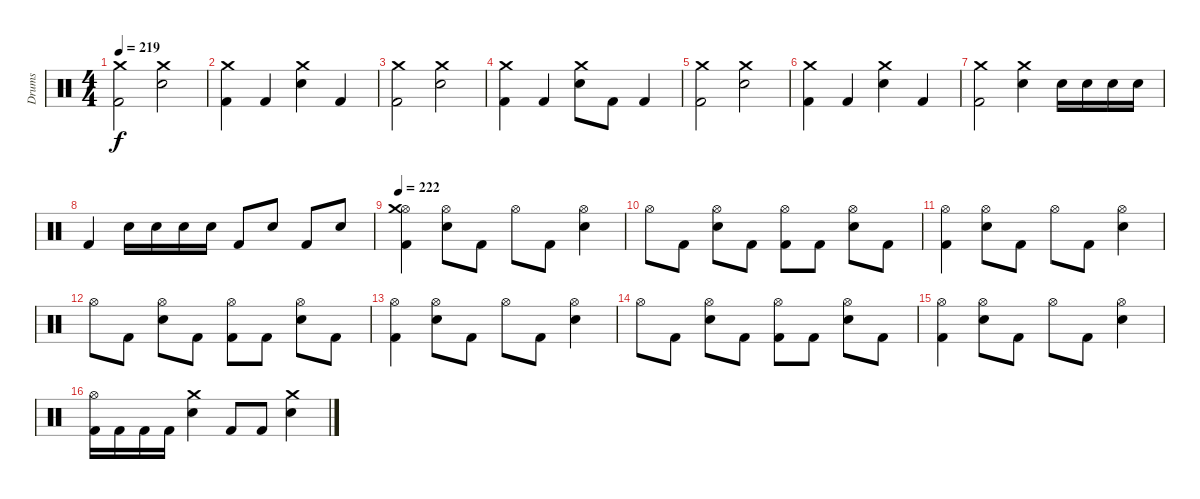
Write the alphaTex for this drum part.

\track ("Drums" "Drums") {instrument percussion}
\staff {score}
\articulation defaults
\ts (4 4)
\tempo 219
\clef neutral
\ks c
("Kick (hit) 2" "Crash medium (hit)").2{dy f} ("Snare (hit) 2" "Crash medium (hit)").2 |
("Kick (hit) 2" "Crash medium (hit)").4 "Kick (hit) 2".4 ("Snare (hit) 2" "Crash medium (hit)").4 "Kick (hit) 2".4 |
("Kick (hit) 2" "Crash medium (hit)").2 ("Snare (hit) 2" "Crash medium (hit)").2 |
("Kick (hit) 2" "Crash medium (hit)").4 "Kick (hit) 2".4 ("Snare (hit) 2" "Crash medium (hit)").8 "Kick (hit) 2".8 "Kick (hit) 2".4 |
("Kick (hit) 2" "Crash medium (hit)").2 ("Snare (hit) 2" "Crash medium (hit)").2 |
("Kick (hit) 2" "Crash medium (hit)").4 "Kick (hit) 2".4 ("Snare (hit) 2" "Crash medium (hit)").4 "Kick (hit) 2".4 |
("Kick (hit) 2" "Crash medium (hit)").2 ("Snare (hit) 2" "Crash medium (hit)").4 "Snare (hit) 2".16 "Snare (hit) 2".16 "Snare (hit) 2".16 "Snare (hit) 2".16 |
"Kick (hit) 2".4 "Snare (hit) 2".16 "Snare (hit) 2".16 "Snare (hit) 2".16 "Snare (hit) 2".16 "Kick (hit) 2".8 "Snare (hit) 2".8 "Kick (hit) 2".8 "Snare (hit) 2".8 |
\tempo 222
("Kick (hit) 2" "Hi-Hat (open)" "Crash medium (hit)").4 ("Snare (hit) 2" "Hi-Hat (open)").8 "Kick (hit) 2".8 "Hi-Hat (open)".8 "Kick (hit) 2".8 ("Snare (hit) 2" "Hi-Hat (open)").4 |
"Hi-Hat (open)".8 "Kick (hit) 2".8 ("Snare (hit) 2" "Hi-Hat (open)").8 "Kick (hit) 2".8 ("Kick (hit) 2" "Hi-Hat (open)").8 "Kick (hit) 2".8 ("Snare (hit) 2" "Hi-Hat (open)").8 "Kick (hit) 2".8 |
("Kick (hit) 2" "Hi-Hat (open)").4 ("Snare (hit) 2" "Hi-Hat (open)").8 "Kick (hit) 2".8 "Hi-Hat (open)".8 "Kick (hit) 2".8 ("Snare (hit) 2" "Hi-Hat (open)").4 |
"Hi-Hat (open)".8 "Kick (hit) 2".8 ("Snare (hit) 2" "Hi-Hat (open)").8 "Kick (hit) 2".8 ("Kick (hit) 2" "Hi-Hat (open)").8 "Kick (hit) 2".8 ("Snare (hit) 2" "Hi-Hat (open)").8 "Kick (hit) 2".8 |
("Kick (hit) 2" "Hi-Hat (open)").4 ("Snare (hit) 2" "Hi-Hat (open)").8 "Kick (hit) 2".8 "Hi-Hat (open)".8 "Kick (hit) 2".8 ("Snare (hit) 2" "Hi-Hat (open)").4 |
"Hi-Hat (open)".8 "Kick (hit) 2".8 ("Snare (hit) 2" "Hi-Hat (open)").8 "Kick (hit) 2".8 ("Kick (hit) 2" "Hi-Hat (open)").8 "Kick (hit) 2".8 ("Snare (hit) 2" "Hi-Hat (open)").8 "Kick (hit) 2".8 |
("Kick (hit) 2" "Hi-Hat (open)").4 ("Snare (hit) 2" "Hi-Hat (open)").8 "Kick (hit) 2".8 "Hi-Hat (open)".8 "Kick (hit) 2".8 ("Snare (hit) 2" "Hi-Hat (open)").4 |
("Kick (hit) 2" "Hi-Hat (open)").16 "Kick (hit) 2".16 "Kick (hit) 2".16 "Kick (hit) 2".16 ("Snare (hit) 2" "Crash medium (hit)").4 "Kick (hit) 2".8 "Kick (hit) 2".8 ("Snare (hit) 2" "Crash medium (hit)").4
